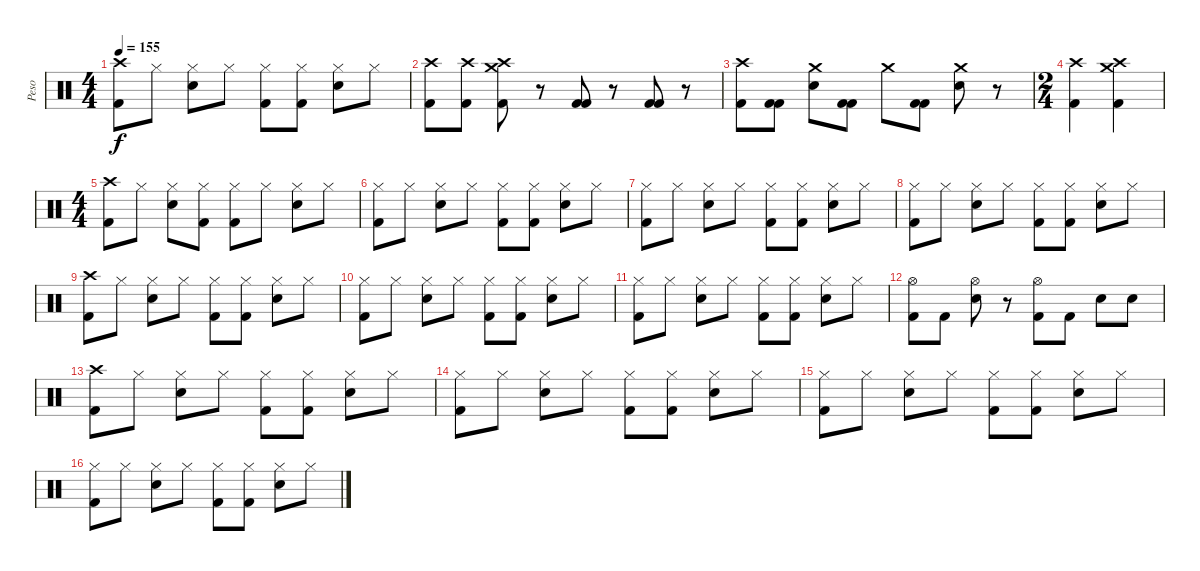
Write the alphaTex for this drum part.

\track ("Peso" "Peso") {instrument percussion}
\staff {score}
\articulation defaults
\ts (4 4)
\tempo 155
\clef neutral
\ks c
("Crash high (hit)" "Kick (hit) 2").8{dy f} "Hi-Hat (closed)".8 ("Hi-Hat (closed)" "Snare (hit) 2").8 "Hi-Hat (closed)".8 ("Hi-Hat (closed)" "Kick (hit) 2").8 ("Hi-Hat (closed)" "Kick (hit) 2").8 ("Hi-Hat (closed)" "Snare (hit) 2").8 "Hi-Hat (closed)".8 |
("Crash high (hit)" "Kick (hit) 2").8 ("Crash high (hit)" "Kick (hit) 2").8 ("Crash high (hit)" "Crash medium (hit)" "Kick (hit) 2").8 r.8 ("Kick (hit) 2" "Kick (hit) 2").8 r.8 ("Kick (hit) 2" "Kick (hit) 2").8 r.8 |
("Crash high (hit)" "Kick (hit) 2").8 ("Kick (hit) 2" "Kick (hit) 2").8 ("Crash medium (hit)" "Snare (hit) 2").8 ("Kick (hit) 2" "Kick (hit) 2").8 "Crash medium (hit)".8 ("Kick (hit) 2" "Kick (hit) 2").8 ("Crash medium (hit)" "Snare (hit) 2").8 r.8 |
\ts (2 4)
("Crash high (hit)" "Kick (hit) 2").4 ("Crash high (hit)" "Crash medium (hit)" "Kick (hit) 2").4 |
\ts (4 4)
("Crash high (hit)" "Kick (hit) 2").8 "Hi-Hat (closed)".8 ("Hi-Hat (closed)" "Snare (hit) 2").8 ("Hi-Hat (closed)" "Kick (hit) 2").8 ("Hi-Hat (closed)" "Kick (hit) 2").8 "Hi-Hat (closed)".8 ("Hi-Hat (closed)" "Snare (hit) 2").8 "Hi-Hat (closed)".8 |
("Hi-Hat (closed)" "Kick (hit) 2").8 "Hi-Hat (closed)".8 ("Hi-Hat (closed)" "Snare (hit) 2").8 "Hi-Hat (closed)".8 ("Hi-Hat (closed)" "Kick (hit) 2").8 ("Hi-Hat (closed)" "Kick (hit) 2").8 ("Hi-Hat (closed)" "Snare (hit) 2").8 "Hi-Hat (closed)".8 |
("Hi-Hat (closed)" "Kick (hit) 2").8 "Hi-Hat (closed)".8 ("Hi-Hat (closed)" "Snare (hit) 2").8 "Hi-Hat (closed)".8 ("Hi-Hat (closed)" "Kick (hit) 2").8 ("Hi-Hat (closed)" "Kick (hit) 2").8 ("Hi-Hat (closed)" "Snare (hit) 2").8 "Hi-Hat (closed)".8 |
("Hi-Hat (closed)" "Kick (hit) 2").8 "Hi-Hat (closed)".8 ("Hi-Hat (closed)" "Snare (hit) 2").8 "Hi-Hat (closed)".8 ("Hi-Hat (closed)" "Kick (hit) 2").8 ("Hi-Hat (closed)" "Kick (hit) 2").8 ("Hi-Hat (closed)" "Snare (hit) 2").8 "Hi-Hat (closed)".8 |
("Crash high (hit)" "Kick (hit) 2").8 "Hi-Hat (closed)".8 ("Hi-Hat (closed)" "Snare (hit) 2").8 "Hi-Hat (closed)".8 ("Hi-Hat (closed)" "Kick (hit) 2").8 ("Hi-Hat (closed)" "Kick (hit) 2").8 ("Hi-Hat (closed)" "Snare (hit) 2").8 "Hi-Hat (closed)".8 |
("Hi-Hat (closed)" "Kick (hit) 2").8 "Hi-Hat (closed)".8 ("Hi-Hat (closed)" "Snare (hit) 2").8 "Hi-Hat (closed)".8 ("Hi-Hat (closed)" "Kick (hit) 2").8 ("Hi-Hat (closed)" "Kick (hit) 2").8 ("Hi-Hat (closed)" "Snare (hit) 2").8 "Hi-Hat (closed)".8 |
("Hi-Hat (closed)" "Kick (hit) 2").8 "Hi-Hat (closed)".8 ("Hi-Hat (closed)" "Snare (hit) 2").8 "Hi-Hat (closed)".8 ("Hi-Hat (closed)" "Kick (hit) 2").8 ("Hi-Hat (closed)" "Kick (hit) 2").8 ("Hi-Hat (closed)" "Snare (hit) 2").8 "Hi-Hat (closed)".8 |
("Hi-Hat (open)" "Kick (hit) 2").8 "Kick (hit) 2".8 ("Hi-Hat (open)" "Snare (hit) 2").8 r.8 ("Hi-Hat (open)" "Kick (hit) 2").8 "Kick (hit) 2".8 "Snare (hit) 2".8 "Snare (hit) 2".8 |
("Crash high (hit)" "Kick (hit) 2").8 "Hi-Hat (closed)".8 ("Hi-Hat (closed)" "Snare (hit) 2").8 "Hi-Hat (closed)".8 ("Hi-Hat (closed)" "Kick (hit) 2").8 ("Hi-Hat (closed)" "Kick (hit) 2").8 ("Hi-Hat (closed)" "Snare (hit) 2").8 "Hi-Hat (closed)".8 |
("Hi-Hat (closed)" "Kick (hit) 2").8 "Hi-Hat (closed)".8 ("Hi-Hat (closed)" "Snare (hit) 2").8 "Hi-Hat (closed)".8 ("Hi-Hat (closed)" "Kick (hit) 2").8 ("Hi-Hat (closed)" "Kick (hit) 2").8 ("Hi-Hat (closed)" "Snare (hit) 2").8 "Hi-Hat (closed)".8 |
("Hi-Hat (closed)" "Kick (hit) 2").8 "Hi-Hat (closed)".8 ("Hi-Hat (closed)" "Snare (hit) 2").8 "Hi-Hat (closed)".8 ("Hi-Hat (closed)" "Kick (hit) 2").8 ("Hi-Hat (closed)" "Kick (hit) 2").8 ("Hi-Hat (closed)" "Snare (hit) 2").8 "Hi-Hat (closed)".8 |
("Hi-Hat (closed)" "Kick (hit) 2").8 "Hi-Hat (closed)".8 ("Hi-Hat (closed)" "Snare (hit) 2").8 "Hi-Hat (closed)".8 ("Hi-Hat (closed)" "Kick (hit) 2").8 ("Hi-Hat (closed)" "Kick (hit) 2").8 ("Hi-Hat (closed)" "Snare (hit) 2").8 "Hi-Hat (closed)".8
